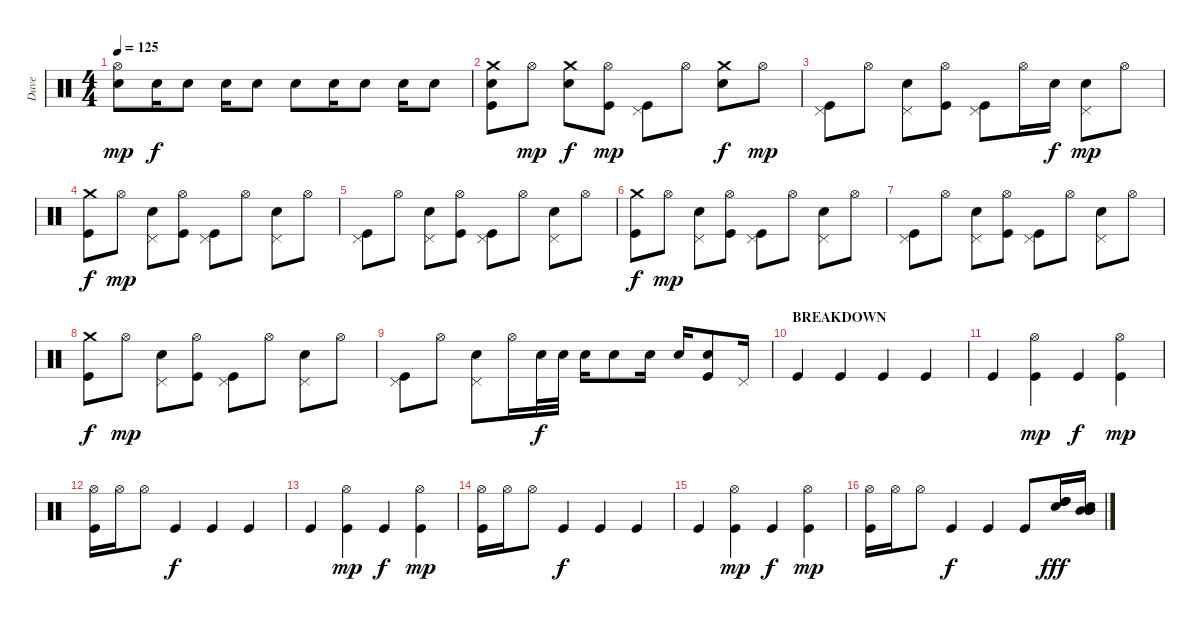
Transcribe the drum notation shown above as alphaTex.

\track ("Dave" "Dave") {instrument percussion}
\staff {score}
\articulation defaults
\ts (4 4)
\tempo 125
\clef neutral
\ks c
("Hi-Hat (open)" "Snare (hit) 2").8{dy mp} "Snare (hit) 2".16{dy f} "Snare (hit) 2".8 "Snare (hit) 2".16 "Snare (hit) 2".8 "Snare (hit) 2".8 "Snare (hit) 2".16 "Snare (hit) 2".8 "Snare (hit) 2".16 "Snare (hit) 2".8 |
("Crash medium (hit)" "Snare (hit) 2" "Kick (hit)").8 "Hi-Hat (open)".8{dy mp} ("Crash medium (hit)" "Snare (hit) 2").8{dy f} ("Hi-Hat (open)" "Kick (hit)").8{dy mp} ("Pedal Hi-Hat (hit)" "Kick (hit)").8 "Hi-Hat (open)".8 ("Crash medium (hit)" "Snare (hit) 2").8{dy f} "Hi-Hat (open)".8{dy mp} |
("Pedal Hi-Hat (hit)" "Kick (hit)").8 "Hi-Hat (open)".8 ("Pedal Hi-Hat (hit)" "Snare (hit) 2").8 ("Hi-Hat (open)" "Kick (hit)").8 ("Pedal Hi-Hat (hit)" "Kick (hit)").8 "Hi-Hat (open)".16 "Snare (hit) 2".16{dy f} ("Pedal Hi-Hat (hit)" "Snare (hit) 2").8{dy mp} "Hi-Hat (open)".8 |
("Crash medium (hit)" "Kick (hit)").8{dy f} "Hi-Hat (open)".8{dy mp} ("Pedal Hi-Hat (hit)" "Snare (hit) 2").8 ("Hi-Hat (open)" "Kick (hit)").8 ("Pedal Hi-Hat (hit)" "Kick (hit)").8 "Hi-Hat (open)".8 ("Pedal Hi-Hat (hit)" "Snare (hit) 2").8 "Hi-Hat (open)".8 |
("Pedal Hi-Hat (hit)" "Kick (hit)").8 "Hi-Hat (open)".8 ("Pedal Hi-Hat (hit)" "Snare (hit) 2").8 ("Hi-Hat (open)" "Kick (hit)").8 ("Pedal Hi-Hat (hit)" "Kick (hit)").8 "Hi-Hat (open)".8 ("Pedal Hi-Hat (hit)" "Snare (hit) 2").8 "Hi-Hat (open)".8 |
("Crash medium (hit)" "Kick (hit)").8{dy f} "Hi-Hat (open)".8{dy mp} ("Pedal Hi-Hat (hit)" "Snare (hit) 2").8 ("Hi-Hat (open)" "Kick (hit)").8 ("Pedal Hi-Hat (hit)" "Kick (hit)").8 "Hi-Hat (open)".8 ("Pedal Hi-Hat (hit)" "Snare (hit) 2").8 "Hi-Hat (open)".8 |
("Pedal Hi-Hat (hit)" "Kick (hit)").8 "Hi-Hat (open)".8 ("Pedal Hi-Hat (hit)" "Snare (hit) 2").8 ("Hi-Hat (open)" "Kick (hit)").8 ("Pedal Hi-Hat (hit)" "Kick (hit)").8 "Hi-Hat (open)".8 ("Pedal Hi-Hat (hit)" "Snare (hit) 2").8 "Hi-Hat (open)".8 |
("Crash medium (hit)" "Kick (hit)").8{dy f} "Hi-Hat (open)".8{dy mp} ("Pedal Hi-Hat (hit)" "Snare (hit) 2").8 ("Hi-Hat (open)" "Kick (hit)").8 ("Pedal Hi-Hat (hit)" "Kick (hit)").8 "Hi-Hat (open)".8 ("Pedal Hi-Hat (hit)" "Snare (hit) 2").8 "Hi-Hat (open)".8 |
("Pedal Hi-Hat (hit)" "Kick (hit)").8 "Hi-Hat (open)".8 ("Pedal Hi-Hat (hit)" "Snare (hit) 2").8 "Hi-Hat (open)".16 "Snare (hit) 2".32{dy f} "Snare (hit) 2".32 "Snare (hit) 2".16 "Snare (hit) 2".8 "Snare (hit) 2".16 "Snare (hit) 2".16 ("Snare (hit) 2" "Kick (hit)").8 "Pedal Hi-Hat (hit)".16 |
\section ("" "BREAKDOWN")
"Kick (hit)".4 "Kick (hit)".4 "Kick (hit)".4 "Kick (hit)".4 |
"Kick (hit)".4 ("Hi-Hat (open)" "Kick (hit)").4{dy mp} "Kick (hit)".4{dy f} ("Hi-Hat (open)" "Kick (hit)").4{dy mp} |
("Hi-Hat (open)" "Kick (hit)").16 "Hi-Hat (open)".16 "Hi-Hat (open)".8 "Kick (hit)".4{dy f} "Kick (hit)".4 "Kick (hit)".4 |
"Kick (hit)".4 ("Hi-Hat (open)" "Kick (hit)").4{dy mp} "Kick (hit)".4{dy f} ("Hi-Hat (open)" "Kick (hit)").4{dy mp} |
("Hi-Hat (open)" "Kick (hit)").16 "Hi-Hat (open)".16 "Hi-Hat (open)".8 "Kick (hit)".4{dy f} "Kick (hit)".4 "Kick (hit)".4 |
"Kick (hit)".4 ("Hi-Hat (open)" "Kick (hit)").4{dy mp} "Kick (hit)".4{dy f} ("Hi-Hat (open)" "Kick (hit)").4{dy mp} |
("Hi-Hat (open)" "Kick (hit)").16 "Hi-Hat (open)".16 "Hi-Hat (open)".8 "Kick (hit)".4{dy f} "Kick (hit)".4 "Kick (hit)".8 ("Electric Snare (hit)" "High Tom (hit)" "High Tom (hit)" "High Tom (hit)").16{dy fff} ("Electric Snare (hit)" "Mid Tom (hit)" "Mid Tom (hit)" "Mid Tom (hit)").16
